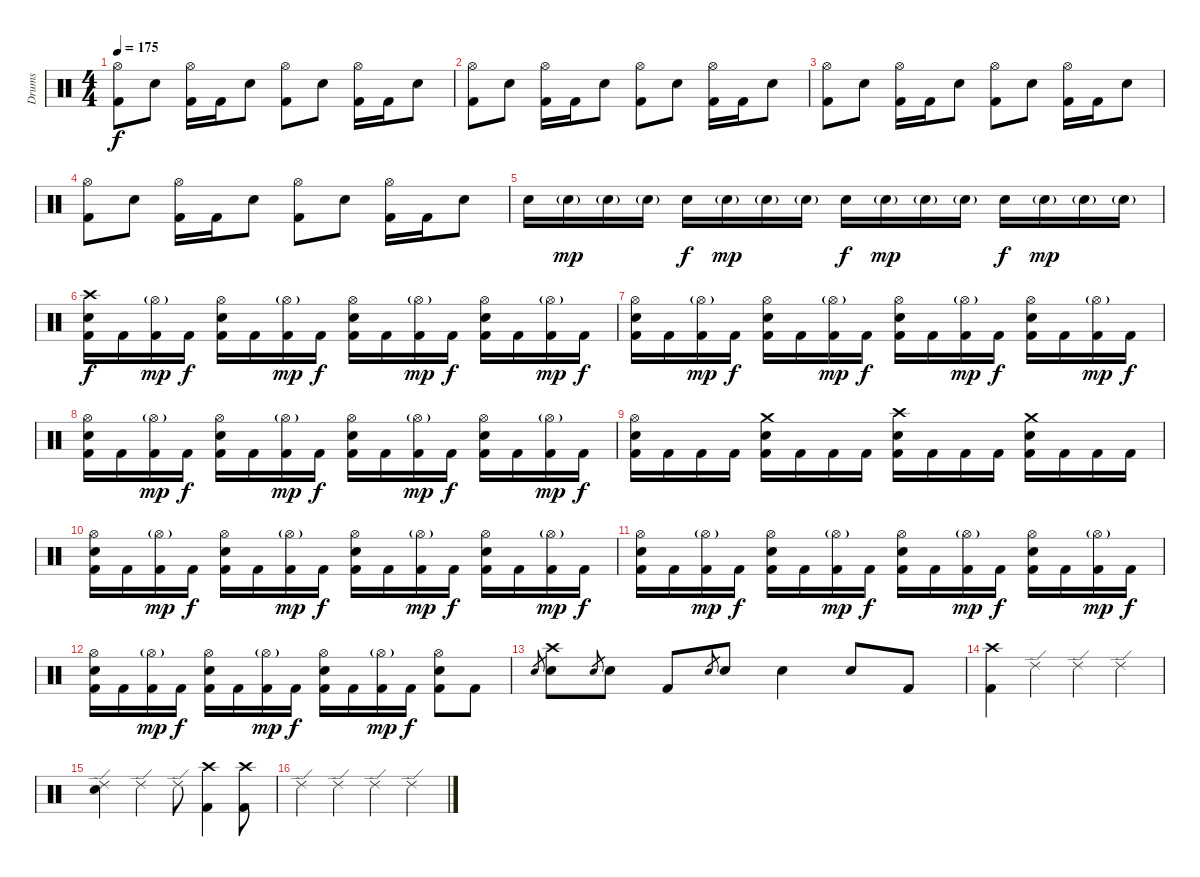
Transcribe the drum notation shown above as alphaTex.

\track ("Drums" "Drums") {instrument percussion}
\staff {score}
\articulation defaults
\ts (4 4)
\tempo 175
\clef neutral
\ks c
("Hi-Hat (open)" "Kick (hit) 2").8{dy f} "Electric Snare (hit)".8 ("Hi-Hat (open)" "Kick (hit) 2").16 "Kick (hit) 2".16 "Electric Snare (hit)".8 ("Hi-Hat (open)" "Kick (hit) 2").8 "Electric Snare (hit)".8 ("Hi-Hat (open)" "Kick (hit) 2").16 "Kick (hit) 2".16 "Electric Snare (hit)".8 |
("Hi-Hat (open)" "Kick (hit) 2").8 "Electric Snare (hit)".8 ("Hi-Hat (open)" "Kick (hit) 2").16 "Kick (hit) 2".16 "Electric Snare (hit)".8 ("Hi-Hat (open)" "Kick (hit) 2").8 "Electric Snare (hit)".8 ("Hi-Hat (open)" "Kick (hit) 2").16 "Kick (hit) 2".16 "Electric Snare (hit)".8 |
("Hi-Hat (open)" "Kick (hit) 2").8 "Electric Snare (hit)".8 ("Hi-Hat (open)" "Kick (hit) 2").16 "Kick (hit) 2".16 "Electric Snare (hit)".8 ("Hi-Hat (open)" "Kick (hit) 2").8 "Electric Snare (hit)".8 ("Hi-Hat (open)" "Kick (hit) 2").16 "Kick (hit) 2".16 "Electric Snare (hit)".8 |
("Hi-Hat (open)" "Kick (hit) 2").8 "Electric Snare (hit)".8 ("Hi-Hat (open)" "Kick (hit) 2").16 "Kick (hit) 2".16 "Electric Snare (hit)".8 ("Hi-Hat (open)" "Kick (hit) 2").8 "Electric Snare (hit)".8 ("Hi-Hat (open)" "Kick (hit) 2").16 "Kick (hit) 2".16 "Electric Snare (hit)".8 |
"Electric Snare (hit)".16 "Electric Snare (hit)"{g}.16{dy mp} "Electric Snare (hit)"{g}.16 "Electric Snare (hit)"{g}.16 "Electric Snare (hit)".16{dy f} "Electric Snare (hit)"{g}.16{dy mp} "Electric Snare (hit)"{g}.16 "Electric Snare (hit)"{g}.16 "Electric Snare (hit)".16{dy f} "Electric Snare (hit)"{g}.16{dy mp} "Electric Snare (hit)"{g}.16 "Electric Snare (hit)"{g}.16 "Electric Snare (hit)".16{dy f} "Electric Snare (hit)"{g}.16{dy mp} "Electric Snare (hit)"{g}.16 "Electric Snare (hit)"{g}.16 |
("Crash high (hit)" "Electric Snare (hit)" "Kick (hit) 2").16{dy f} "Kick (hit) 2".16 ("Hi-Hat (open)"{g} "Kick (hit) 2").16{dy mp} "Kick (hit) 2".16{dy f} ("Hi-Hat (open)" "Electric Snare (hit)" "Kick (hit) 2").16 "Kick (hit) 2".16 ("Hi-Hat (open)"{g} "Kick (hit) 2").16{dy mp} "Kick (hit) 2".16{dy f} ("Hi-Hat (open)" "Electric Snare (hit)" "Kick (hit) 2").16 "Kick (hit) 2".16 ("Hi-Hat (open)"{g} "Kick (hit) 2").16{dy mp} "Kick (hit) 2".16{dy f} ("Hi-Hat (open)" "Electric Snare (hit)" "Kick (hit) 2").16 "Kick (hit) 2".16 ("Hi-Hat (open)"{g} "Kick (hit) 2").16{dy mp} "Kick (hit) 2".16{dy f} |
("Hi-Hat (open)" "Electric Snare (hit)" "Kick (hit) 2").16 "Kick (hit) 2".16 ("Hi-Hat (open)"{g} "Kick (hit) 2").16{dy mp} "Kick (hit) 2".16{dy f} ("Hi-Hat (open)" "Electric Snare (hit)" "Kick (hit) 2").16 "Kick (hit) 2".16 ("Hi-Hat (open)"{g} "Kick (hit) 2").16{dy mp} "Kick (hit) 2".16{dy f} ("Hi-Hat (open)" "Electric Snare (hit)" "Kick (hit) 2").16 "Kick (hit) 2".16 ("Hi-Hat (open)"{g} "Kick (hit) 2").16{dy mp} "Kick (hit) 2".16{dy f} ("Hi-Hat (open)" "Electric Snare (hit)" "Kick (hit) 2").16 "Kick (hit) 2".16 ("Hi-Hat (open)"{g} "Kick (hit) 2").16{dy mp} "Kick (hit) 2".16{dy f} |
("Hi-Hat (open)" "Electric Snare (hit)" "Kick (hit) 2").16 "Kick (hit) 2".16 ("Hi-Hat (open)"{g} "Kick (hit) 2").16{dy mp} "Kick (hit) 2".16{dy f} ("Hi-Hat (open)" "Electric Snare (hit)" "Kick (hit) 2").16 "Kick (hit) 2".16 ("Hi-Hat (open)"{g} "Kick (hit) 2").16{dy mp} "Kick (hit) 2".16{dy f} ("Hi-Hat (open)" "Electric Snare (hit)" "Kick (hit) 2").16 "Kick (hit) 2".16 ("Hi-Hat (open)"{g} "Kick (hit) 2").16{dy mp} "Kick (hit) 2".16{dy f} ("Hi-Hat (open)" "Electric Snare (hit)" "Kick (hit) 2").16 "Kick (hit) 2".16 ("Hi-Hat (open)"{g} "Kick (hit) 2").16{dy mp} "Kick (hit) 2".16{dy f} |
("Hi-Hat (open)" "Electric Snare (hit)" "Kick (hit) 2").16 "Kick (hit) 2".16 "Kick (hit) 2".16 "Kick (hit) 2".16 ("Crash medium (hit)" "Electric Snare (hit)" "Kick (hit) 2").16 "Kick (hit) 2".16 "Kick (hit) 2".16 "Kick (hit) 2".16 ("Crash high (hit)" "Electric Snare (hit)" "Kick (hit) 2").16 "Kick (hit) 2".16 "Kick (hit) 2".16 "Kick (hit) 2".16 ("Crash medium (hit)" "Electric Snare (hit)" "Kick (hit) 2").16 "Kick (hit) 2".16 "Kick (hit) 2".16 "Kick (hit) 2".16 |
("Hi-Hat (open)" "Electric Snare (hit)" "Kick (hit) 2").16 "Kick (hit) 2".16 ("Hi-Hat (open)"{g} "Kick (hit) 2").16{dy mp} "Kick (hit) 2".16{dy f} ("Hi-Hat (open)" "Electric Snare (hit)" "Kick (hit) 2").16 "Kick (hit) 2".16 ("Hi-Hat (open)"{g} "Kick (hit) 2").16{dy mp} "Kick (hit) 2".16{dy f} ("Hi-Hat (open)" "Electric Snare (hit)" "Kick (hit) 2").16 "Kick (hit) 2".16 ("Hi-Hat (open)"{g} "Kick (hit) 2").16{dy mp} "Kick (hit) 2".16{dy f} ("Hi-Hat (open)" "Electric Snare (hit)" "Kick (hit) 2").16 "Kick (hit) 2".16 ("Hi-Hat (open)"{g} "Kick (hit) 2").16{dy mp} "Kick (hit) 2".16{dy f} |
("Hi-Hat (open)" "Electric Snare (hit)" "Kick (hit) 2").16 "Kick (hit) 2".16 ("Hi-Hat (open)"{g} "Kick (hit) 2").16{dy mp} "Kick (hit) 2".16{dy f} ("Hi-Hat (open)" "Electric Snare (hit)" "Kick (hit) 2").16 "Kick (hit) 2".16 ("Hi-Hat (open)"{g} "Kick (hit) 2").16{dy mp} "Kick (hit) 2".16{dy f} ("Hi-Hat (open)" "Electric Snare (hit)" "Kick (hit) 2").16 "Kick (hit) 2".16 ("Hi-Hat (open)"{g} "Kick (hit) 2").16{dy mp} "Kick (hit) 2".16{dy f} ("Hi-Hat (open)" "Electric Snare (hit)" "Kick (hit) 2").16 "Kick (hit) 2".16 ("Hi-Hat (open)"{g} "Kick (hit) 2").16{dy mp} "Kick (hit) 2".16{dy f} |
("Hi-Hat (open)" "Electric Snare (hit)" "Kick (hit) 2").16 "Kick (hit) 2".16 ("Hi-Hat (open)"{g} "Kick (hit) 2").16{dy mp} "Kick (hit) 2".16{dy f} ("Hi-Hat (open)" "Electric Snare (hit)" "Kick (hit) 2").16 "Kick (hit) 2".16 ("Hi-Hat (open)"{g} "Kick (hit) 2").16{dy mp} "Kick (hit) 2".16{dy f} ("Hi-Hat (open)" "Electric Snare (hit)" "Kick (hit) 2").16 "Kick (hit) 2".16 ("Hi-Hat (open)"{g} "Kick (hit) 2").16{dy mp} "Kick (hit) 2".16{dy f} ("Hi-Hat (open)" "Electric Snare (hit)" "Kick (hit) 2").8 "Kick (hit) 2".8 |
"Electric Snare (hit)".8{gr} ("Crash high (hit)" "Electric Snare (hit)").8 "Electric Snare (hit)".8{gr} "Electric Snare (hit)".8 "Kick (hit) 2".8 "Electric Snare (hit)".8{gr} "Electric Snare (hit)".8 "Electric Snare (hit)".4 "Electric Snare (hit)".8 "Kick (hit) 2".8 |
("Crash high (hit)" "Kick (hit) 2").4 "Ride (edge) 2".4 "Ride (edge) 2".4 "Ride (edge) 2".4 |
("Ride (edge) 2" "Electric Snare (hit)").4 "Ride (edge) 2".4 "Ride (edge) 2".8 ("Crash high (hit)" "Kick (hit) 2").4 ("Crash high (hit)" "Kick (hit) 2").8 |
"Ride (edge) 2".4 "Ride (edge) 2".4 "Ride (edge) 2".4 "Ride (edge) 2".4
